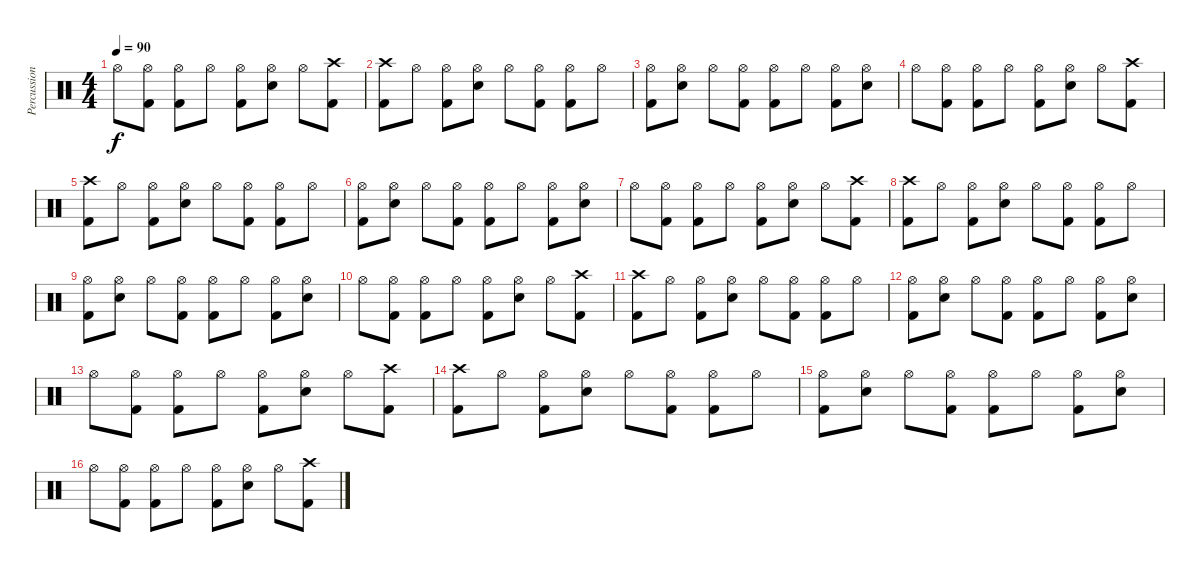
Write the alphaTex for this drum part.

\track ("Percussion" "Percussion") {instrument percussion}
\staff {score}
\articulation defaults
\ts (4 4)
\tempo 90
\clef neutral
\ks c "Hi-Hat (open)".8{dy f}
("Hi-Hat (open)" "Kick (hit) 2").8 ("Hi-Hat (open)" "Kick (hit) 2").8 "Hi-Hat (open)".8 ("Hi-Hat (open)" "Kick (hit) 2").8 ("Hi-Hat (open)" "Snare (hit) 2").8 "Hi-Hat (open)".8 ("Crash high (hit)" "Kick (hit) 2").8 |
("Crash high (hit)" "Kick (hit) 2").8 "Hi-Hat (open)".8 ("Hi-Hat (open)" "Kick (hit) 2").8 ("Hi-Hat (open)" "Snare (hit) 2").8 "Hi-Hat (open)".8 ("Hi-Hat (open)" "Kick (hit) 2").8 ("Hi-Hat (open)" "Kick (hit) 2").8 "Hi-Hat (open)".8 |
("Hi-Hat (open)" "Kick (hit) 2").8 ("Hi-Hat (open)" "Snare (hit) 2").8 "Hi-Hat (open)".8 ("Hi-Hat (open)" "Kick (hit) 2").8 ("Hi-Hat (open)" "Kick (hit) 2").8 "Hi-Hat (open)".8 ("Hi-Hat (open)" "Kick (hit) 2").8 ("Hi-Hat (open)" "Snare (hit) 2").8 |
"Hi-Hat (open)".8 ("Hi-Hat (open)" "Kick (hit) 2").8 ("Hi-Hat (open)" "Kick (hit) 2").8 "Hi-Hat (open)".8 ("Hi-Hat (open)" "Kick (hit) 2").8 ("Hi-Hat (open)" "Snare (hit) 2").8 "Hi-Hat (open)".8 ("Crash high (hit)" "Kick (hit) 2").8 |
("Crash high (hit)" "Kick (hit) 2").8 "Hi-Hat (open)".8 ("Hi-Hat (open)" "Kick (hit) 2").8 ("Hi-Hat (open)" "Snare (hit) 2").8 "Hi-Hat (open)".8 ("Hi-Hat (open)" "Kick (hit) 2").8 ("Hi-Hat (open)" "Kick (hit) 2").8 "Hi-Hat (open)".8 |
("Hi-Hat (open)" "Kick (hit) 2").8 ("Hi-Hat (open)" "Snare (hit) 2").8 "Hi-Hat (open)".8 ("Hi-Hat (open)" "Kick (hit) 2").8 ("Hi-Hat (open)" "Kick (hit) 2").8 "Hi-Hat (open)".8 ("Hi-Hat (open)" "Kick (hit) 2").8 ("Hi-Hat (open)" "Snare (hit) 2").8 |
"Hi-Hat (open)".8 ("Hi-Hat (open)" "Kick (hit) 2").8 ("Hi-Hat (open)" "Kick (hit) 2").8 "Hi-Hat (open)".8 ("Hi-Hat (open)" "Kick (hit) 2").8 ("Hi-Hat (open)" "Snare (hit) 2").8 "Hi-Hat (open)".8 ("Crash high (hit)" "Kick (hit) 2").8 |
("Crash high (hit)" "Kick (hit) 2").8 "Hi-Hat (open)".8 ("Hi-Hat (open)" "Kick (hit) 2").8 ("Hi-Hat (open)" "Snare (hit) 2").8 "Hi-Hat (open)".8 ("Hi-Hat (open)" "Kick (hit) 2").8 ("Hi-Hat (open)" "Kick (hit) 2").8 "Hi-Hat (open)".8 |
("Hi-Hat (open)" "Kick (hit) 2").8 ("Hi-Hat (open)" "Snare (hit) 2").8 "Hi-Hat (open)".8 ("Hi-Hat (open)" "Kick (hit) 2").8 ("Hi-Hat (open)" "Kick (hit) 2").8 "Hi-Hat (open)".8 ("Hi-Hat (open)" "Kick (hit) 2").8 ("Hi-Hat (open)" "Snare (hit) 2").8 |
"Hi-Hat (open)".8 ("Hi-Hat (open)" "Kick (hit) 2").8 ("Hi-Hat (open)" "Kick (hit) 2").8 "Hi-Hat (open)".8 ("Hi-Hat (open)" "Kick (hit) 2").8 ("Hi-Hat (open)" "Snare (hit) 2").8 "Hi-Hat (open)".8 ("Crash high (hit)" "Kick (hit) 2").8 |
("Crash high (hit)" "Kick (hit) 2").8 "Hi-Hat (open)".8 ("Hi-Hat (open)" "Kick (hit) 2").8 ("Hi-Hat (open)" "Snare (hit) 2").8 "Hi-Hat (open)".8 ("Hi-Hat (open)" "Kick (hit) 2").8 ("Hi-Hat (open)" "Kick (hit) 2").8 "Hi-Hat (open)".8 |
("Hi-Hat (open)" "Kick (hit) 2").8 ("Hi-Hat (open)" "Snare (hit) 2").8 "Hi-Hat (open)".8 ("Hi-Hat (open)" "Kick (hit) 2").8 ("Hi-Hat (open)" "Kick (hit) 2").8 "Hi-Hat (open)".8 ("Hi-Hat (open)" "Kick (hit) 2").8 ("Hi-Hat (open)" "Snare (hit) 2").8 |
"Hi-Hat (open)".8 ("Hi-Hat (open)" "Kick (hit) 2").8 ("Hi-Hat (open)" "Kick (hit) 2").8 "Hi-Hat (open)".8 ("Hi-Hat (open)" "Kick (hit) 2").8 ("Hi-Hat (open)" "Snare (hit) 2").8 "Hi-Hat (open)".8 ("Crash high (hit)" "Kick (hit) 2").8 |
("Crash high (hit)" "Kick (hit) 2").8 "Hi-Hat (open)".8 ("Hi-Hat (open)" "Kick (hit) 2").8 ("Hi-Hat (open)" "Snare (hit) 2").8 "Hi-Hat (open)".8 ("Hi-Hat (open)" "Kick (hit) 2").8 ("Hi-Hat (open)" "Kick (hit) 2").8 "Hi-Hat (open)".8 |
("Hi-Hat (open)" "Kick (hit) 2").8 ("Hi-Hat (open)" "Snare (hit) 2").8 "Hi-Hat (open)".8 ("Hi-Hat (open)" "Kick (hit) 2").8 ("Hi-Hat (open)" "Kick (hit) 2").8 "Hi-Hat (open)".8 ("Hi-Hat (open)" "Kick (hit) 2").8 ("Hi-Hat (open)" "Snare (hit) 2").8 |
"Hi-Hat (open)".8 ("Hi-Hat (open)" "Kick (hit) 2").8 ("Hi-Hat (open)" "Kick (hit) 2").8 "Hi-Hat (open)".8 ("Hi-Hat (open)" "Kick (hit) 2").8 ("Hi-Hat (open)" "Snare (hit) 2").8 "Hi-Hat (open)".8 ("Crash high (hit)" "Kick (hit) 2").8
